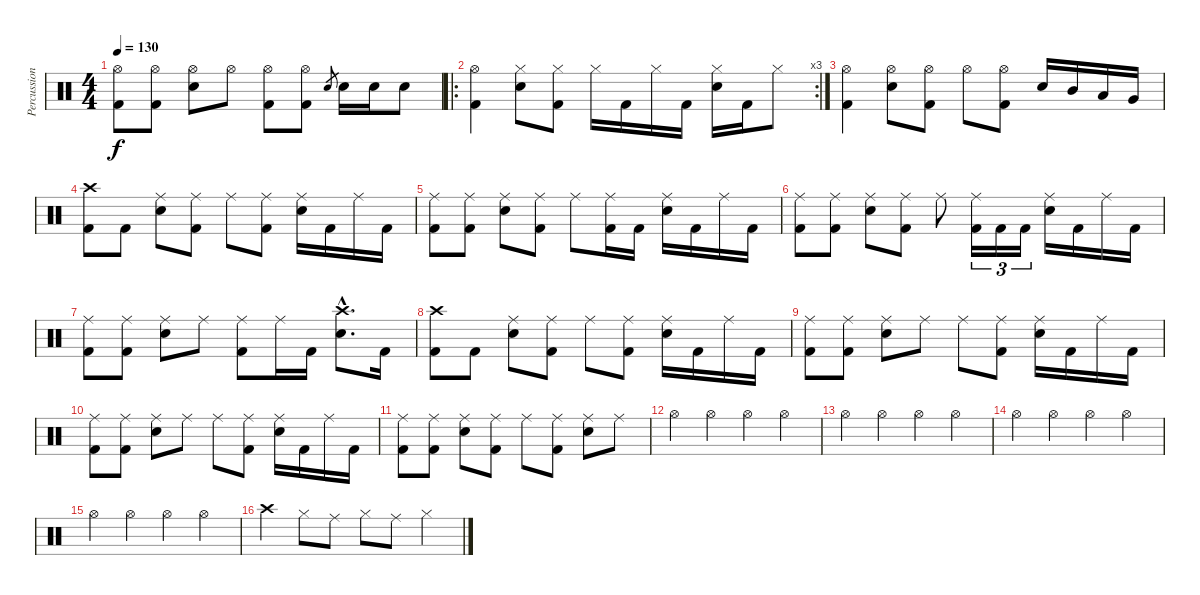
\track ("Percussion" "Percussion") {instrument percussion}
\staff {score}
\articulation defaults
\ts (4 4)
\tempo 130
\clef neutral
\ks c
("Hi-Hat (open)" "Kick (hit) 2").8{dy f} ("Hi-Hat (open)" "Kick (hit) 2").8 ("Hi-Hat (open)" "Electric Snare (hit)").8 "Hi-Hat (open)".8 ("Hi-Hat (open)" "Kick (hit) 2").8 ("Hi-Hat (open)" "Kick (hit) 2").8 "Electric Snare (hit)".8{gr} "Electric Snare (hit)".16 "Electric Snare (hit)".16 "Electric Snare (hit)".8 |
\ro
\rc 3
("Hi-Hat (open)" "Kick (hit) 2").4 ("Hi-Hat (closed)" "Electric Snare (hit)").8 ("Hi-Hat (closed)" "Kick (hit) 2").8 "Hi-Hat (closed)".16 "Kick (hit) 2".16 "Hi-Hat (closed)".16 "Kick (hit) 2".16 ("Hi-Hat (closed)" "Electric Snare (hit)").16 "Kick (hit) 2".16 "Hi-Hat (closed)".8 |
("Hi-Hat (open)" "Kick (hit) 2").4 ("Hi-Hat (open)" "Electric Snare (hit)").8 ("Hi-Hat (open)" "Kick (hit) 2").8 "Hi-Hat (open)".8 ("Hi-Hat (open)" "Kick (hit) 2").8 "Electric Snare (hit)".16 "Mid Tom (hit)".16 "Low Tom (hit)".16 "Very Low Tom (hit)".16 |
("Crash high (hit)" "Kick (hit) 2").8 "Kick (hit) 2".8 ("Ride (middle)" "Electric Snare (hit)").8 ("Ride (middle)" "Kick (hit) 2").8 "Ride (middle)".8 ("Ride (middle)" "Kick (hit) 2").8 ("Ride (middle)" "Electric Snare (hit)").16 "Kick (hit) 2".16 "Ride (middle)".16 "Kick (hit) 2".16 |
("Ride (middle)" "Kick (hit) 2").8 ("Ride (middle)" "Kick (hit) 2").8 ("Ride (middle)" "Electric Snare (hit)").8 ("Ride (middle)" "Kick (hit) 2").8 "Ride (middle)".8 ("Ride (middle)" "Kick (hit) 2").16 "Kick (hit) 2".16 ("Ride (middle)" "Electric Snare (hit)").16 "Kick (hit) 2".16 "Ride (middle)".16 "Kick (hit) 2".16 |
("Ride (middle)" "Kick (hit) 2").8 ("Ride (middle)" "Kick (hit) 2").8 ("Ride (middle)" "Electric Snare (hit)").8 ("Ride (middle)" "Kick (hit) 2").8 "Ride (middle)".8 ("Ride (middle)" "Kick (hit) 2").16{tu (3 2)} "Kick (hit) 2".16{tu (3 2)} "Kick (hit) 2".16{tu (3 2)} ("Ride (middle)" "Electric Snare (hit)").16 "Kick (hit) 2".16 "Ride (middle)".16 "Kick (hit) 2".16 |
("Ride (middle)" "Kick (hit) 2").8 ("Ride (middle)" "Kick (hit) 2").8 ("Ride (middle)" "Electric Snare (hit)").8 "Ride (middle)".8 ("Ride (middle)" "Kick (hit) 2").8 "Ride (middle)".16 "Kick (hit) 2".16 ("Crash high (hit)"{hac} "Electric Snare (hit)"{hac}).8{d} "Kick (hit) 2".16 |
("Crash high (hit)" "Kick (hit) 2").8 "Kick (hit) 2".8 ("Ride (middle)" "Electric Snare (hit)").8 ("Ride (middle)" "Kick (hit) 2").8 "Ride (middle)".8 ("Ride (middle)" "Kick (hit) 2").8 ("Ride (middle)" "Electric Snare (hit)").16 "Kick (hit) 2".16 "Ride (middle)".16 "Kick (hit) 2".16 |
("Ride (middle)" "Kick (hit) 2").8 ("Ride (middle)" "Kick (hit) 2").8 ("Ride (middle)" "Electric Snare (hit)").8 "Ride (middle)".8 "Ride (middle)".8 ("Ride (middle)" "Kick (hit) 2").8 ("Ride (middle)" "Electric Snare (hit)").16 "Kick (hit) 2".16 "Ride (middle)".16 "Kick (hit) 2".16 |
("Ride (middle)" "Kick (hit) 2").8 ("Ride (middle)" "Kick (hit) 2").8 ("Ride (middle)" "Electric Snare (hit)").8 "Ride (middle)".8 "Ride (middle)".8 ("Ride (middle)" "Kick (hit) 2").8 ("Ride (middle)" "Electric Snare (hit)").16 "Kick (hit) 2".16 "Ride (middle)".16 "Kick (hit) 2".16 |
("Ride (middle)" "Kick (hit) 2").8 ("Ride (middle)" "Kick (hit) 2").8 ("Ride (middle)" "Electric Snare (hit)").8 ("Ride (middle)" "Kick (hit) 2").8 "Ride (middle)".8 ("Ride (middle)" "Kick (hit) 2").8 ("Ride (middle)" "Electric Snare (hit)").8 "Ride (middle)".8 |
"Hi-Hat (open)".4 "Hi-Hat (open)".4 "Hi-Hat (open)".4 "Hi-Hat (open)".4 |
"Hi-Hat (open)".4 "Hi-Hat (open)".4 "Hi-Hat (open)".4 "Hi-Hat (open)".4 |
"Hi-Hat (open)".4 "Hi-Hat (open)".4 "Hi-Hat (open)".4 "Hi-Hat (open)".4 |
"Hi-Hat (open)".4 "Hi-Hat (open)".4 "Hi-Hat (open)".4 "Hi-Hat (open)".4 |
"Crash high (hit)".4 "Hi-Hat (closed)".8 "Ride (middle)".8 "Hi-Hat (closed)".8 "Ride (middle)".8 "Hi-Hat (closed)".4
